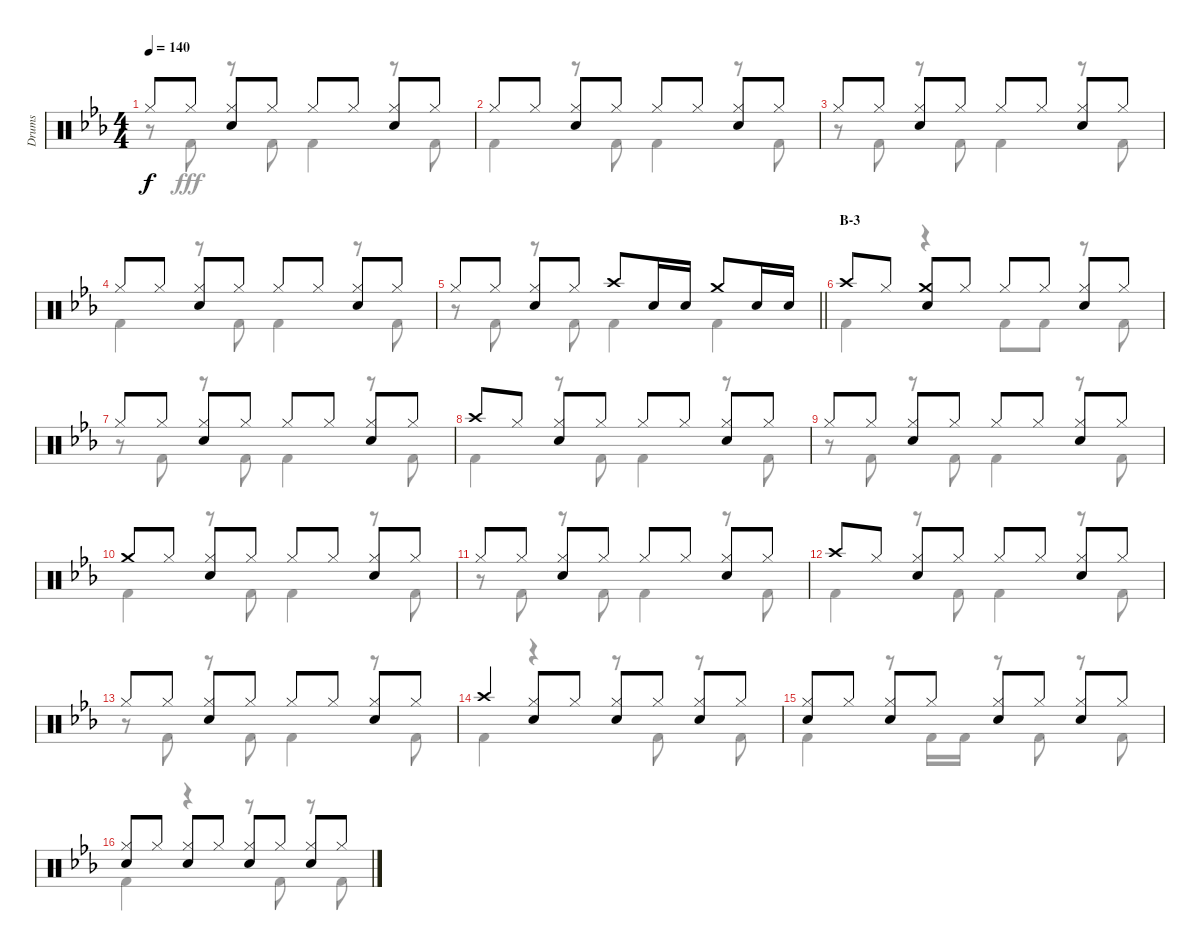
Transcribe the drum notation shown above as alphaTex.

\track ("Drums" "Drums") {instrument percussion}
\staff {score}
\articulation defaults
\voice
\ts (4 4)
\tempo 140
\clef neutral
\ks eb "Hi-Hat (closed)".8{dy f} "Hi-Hat (closed)".8
("Hi-Hat (closed)" "Snare (hit) 2").8 "Hi-Hat (closed)".8 "Hi-Hat (closed)".8 "Hi-Hat (closed)".8 ("Hi-Hat (closed)" "Snare (hit) 2").8 "Hi-Hat (closed)".8 |
"Hi-Hat (closed)".8 "Hi-Hat (closed)".8 ("Hi-Hat (closed)" "Snare (hit) 2").8 "Hi-Hat (closed)".8 "Hi-Hat (closed)".8 "Hi-Hat (closed)".8 ("Hi-Hat (closed)" "Snare (hit) 2").8 "Hi-Hat (closed)".8 |
"Hi-Hat (closed)".8 "Hi-Hat (closed)".8 ("Hi-Hat (closed)" "Snare (hit) 2").8 "Hi-Hat (closed)".8 "Hi-Hat (closed)".8 "Hi-Hat (closed)".8 ("Hi-Hat (closed)" "Snare (hit) 2").8 "Hi-Hat (closed)".8 |
"Hi-Hat (closed)".8 "Hi-Hat (closed)".8 ("Hi-Hat (closed)" "Snare (hit) 2").8 "Hi-Hat (closed)".8 "Hi-Hat (closed)".8 "Hi-Hat (closed)".8 ("Hi-Hat (closed)" "Snare (hit) 2").8 "Hi-Hat (closed)".8 |
\barLineRight lightlight "Hi-Hat (closed)".8 "Hi-Hat (closed)".8
("Hi-Hat (closed)" "Snare (hit) 2").8 "Hi-Hat (closed)".8 "Crash high (hit)".8 "Snare (hit) 2".16 "Snare (hit) 2".16 "Crash medium (hit)".8 "Snare (hit) 2".16 "Snare (hit) 2".16 |
\section ("" "B-3")
"Crash high (hit)".8 "Hi-Hat (closed)".8 ("Crash medium (hit)" "Snare (hit) 2").8 "Hi-Hat (closed)".8 "Hi-Hat (closed)".8 "Hi-Hat (closed)".8 ("Hi-Hat (closed)" "Snare (hit) 2").8 "Hi-Hat (closed)".8 |
"Hi-Hat (closed)".8 "Hi-Hat (closed)".8 ("Hi-Hat (closed)" "Snare (hit) 2").8 "Hi-Hat (closed)".8 "Hi-Hat (closed)".8 "Hi-Hat (closed)".8 ("Hi-Hat (closed)" "Snare (hit) 2").8 "Hi-Hat (closed)".8 |
"Crash high (hit)".8 "Hi-Hat (closed)".8 ("Hi-Hat (closed)" "Snare (hit) 2").8 "Hi-Hat (closed)".8 "Hi-Hat (closed)".8 "Hi-Hat (closed)".8 ("Hi-Hat (closed)" "Snare (hit) 2").8 "Hi-Hat (closed)".8 |
"Hi-Hat (closed)".8 "Hi-Hat (closed)".8 ("Hi-Hat (closed)" "Snare (hit) 2").8 "Hi-Hat (closed)".8 "Hi-Hat (closed)".8 "Hi-Hat (closed)".8 ("Hi-Hat (closed)" "Snare (hit) 2").8 "Hi-Hat (closed)".8 |
"Crash medium (hit)".8 "Hi-Hat (closed)".8 ("Hi-Hat (closed)" "Snare (hit) 2").8 "Hi-Hat (closed)".8 "Hi-Hat (closed)".8 "Hi-Hat (closed)".8 ("Hi-Hat (closed)" "Snare (hit) 2").8 "Hi-Hat (closed)".8 |
"Hi-Hat (closed)".8 "Hi-Hat (closed)".8 ("Hi-Hat (closed)" "Snare (hit) 2").8 "Hi-Hat (closed)".8 "Hi-Hat (closed)".8 "Hi-Hat (closed)".8 ("Hi-Hat (closed)" "Snare (hit) 2").8 "Hi-Hat (closed)".8 |
"Crash high (hit)".8 "Hi-Hat (closed)".8 ("Hi-Hat (closed)" "Snare (hit) 2").8 "Hi-Hat (closed)".8 "Hi-Hat (closed)".8 "Hi-Hat (closed)".8 ("Hi-Hat (closed)" "Snare (hit) 2").8 "Hi-Hat (closed)".8 |
"Hi-Hat (closed)".8 "Hi-Hat (closed)".8 ("Hi-Hat (closed)" "Snare (hit) 2").8 "Hi-Hat (closed)".8 "Hi-Hat (closed)".8 "Hi-Hat (closed)".8 ("Hi-Hat (closed)" "Snare (hit) 2").8 "Hi-Hat (closed)".8 |
"Crash high (hit)".4 ("Hi-Hat (closed)" "Snare (hit) 2").8 "Hi-Hat (closed)".8 ("Hi-Hat (closed)" "Snare (hit) 2").8 "Hi-Hat (closed)".8 ("Hi-Hat (closed)" "Snare (hit) 2").8 "Hi-Hat (closed)".8 |
("Hi-Hat (closed)" "Snare (hit) 2").8 "Hi-Hat (closed)".8 ("Hi-Hat (closed)" "Snare (hit) 2").8 "Hi-Hat (closed)".8 ("Hi-Hat (closed)" "Snare (hit) 2").8 "Hi-Hat (closed)".8 ("Hi-Hat (closed)" "Snare (hit) 2").8 "Hi-Hat (closed)".8 |
("Hi-Hat (closed)" "Snare (hit) 2").8 "Hi-Hat (closed)".8 ("Hi-Hat (closed)" "Snare (hit) 2").8 "Hi-Hat (closed)".8 ("Hi-Hat (closed)" "Snare (hit) 2").8 "Hi-Hat (closed)".8 ("Hi-Hat (closed)" "Snare (hit) 2").8 "Hi-Hat (closed)".8
\voice
\clef neutral
\ottava regular
\simile none
\ks eb
r.8{dy fff} "Kick (hit) 2".8 r.8 "Kick (hit) 2".8 "Kick (hit) 2".4 r.8 "Kick (hit) 2".8 |
"Kick (hit) 2".4 r.8 "Kick (hit) 2".8 "Kick (hit) 2".4 r.8 "Kick (hit) 2".8 |
r.8 "Kick (hit) 2".8 r.8 "Kick (hit) 2".8 "Kick (hit) 2".4 r.8 "Kick (hit) 2".8 |
"Kick (hit) 2".4 r.8 "Kick (hit) 2".8 "Kick (hit) 2".4 r.8 "Kick (hit) 2".8 |
\barLineRight lightlight
r.8 "Kick (hit) 2".8 r.8 "Kick (hit) 2".8 "Kick (hit) 2".4 "Kick (hit) 2".4 |
"Kick (hit) 2".4 r.4 "Kick (hit) 2".8 "Kick (hit) 2".8 r.8 "Kick (hit) 2".8 |
r.8 "Kick (hit) 2".8 r.8 "Kick (hit) 2".8 "Kick (hit) 2".4 r.8 "Kick (hit) 2".8 |
"Kick (hit) 2".4 r.8 "Kick (hit) 2".8 "Kick (hit) 2".4 r.8 "Kick (hit) 2".8 |
r.8 "Kick (hit) 2".8 r.8 "Kick (hit) 2".8 "Kick (hit) 2".4 r.8 "Kick (hit) 2".8 |
"Kick (hit) 2".4 r.8 "Kick (hit) 2".8 "Kick (hit) 2".4 r.8 "Kick (hit) 2".8 |
r.8 "Kick (hit) 2".8 r.8 "Kick (hit) 2".8 "Kick (hit) 2".4 r.8 "Kick (hit) 2".8 |
"Kick (hit) 2".4 r.8 "Kick (hit) 2".8 "Kick (hit) 2".4 r.8 "Kick (hit) 2".8 |
r.8 "Kick (hit) 2".8 r.8 "Kick (hit) 2".8 "Kick (hit) 2".4 r.8 "Kick (hit) 2".8 |
"Kick (hit) 2".4 r.4 r.8 "Kick (hit) 2".8 r.8 "Kick (hit) 2".8 |
"Kick (hit) 2".4 r.8 "Kick (hit) 2".16 "Kick (hit) 2".16 r.8 "Kick (hit) 2".8 r.8 "Kick (hit) 2".8 |
"Kick (hit) 2".4 r.4 r.8 "Kick (hit) 2".8 r.8 "Kick (hit) 2".8
